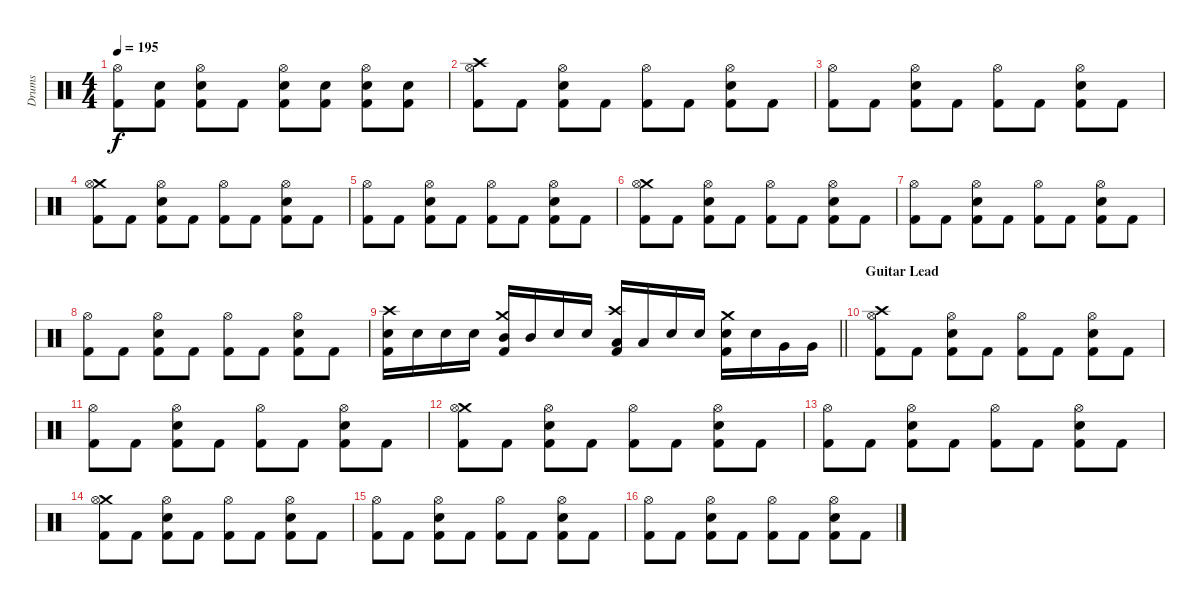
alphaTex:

\track ("Drums" "Drums") {instrument percussion}
\staff {score}
\articulation defaults
\ts (4 4)
\tempo 195
\clef neutral
\ks c
("Hi-Hat (open)" "Kick (hit) 2").8{dy f} ("Snare (hit) 2" "Kick (hit) 2").8 ("Hi-Hat (open)" "Snare (hit) 2" "Kick (hit) 2").8 "Kick (hit) 2".8 ("Hi-Hat (open)" "Snare (hit) 2" "Kick (hit) 2").8 ("Snare (hit) 2" "Kick (hit) 2").8 ("Hi-Hat (open)" "Snare (hit) 2" "Kick (hit) 2").8 ("Snare (hit) 2" "Kick (hit) 2").8 |
("Crash high (hit)" "Hi-Hat (open)" "Kick (hit) 2").8 "Kick (hit) 2".8 ("Hi-Hat (open)" "Snare (hit) 2" "Kick (hit) 2").8 "Kick (hit) 2".8 ("Hi-Hat (open)" "Kick (hit) 2").8 "Kick (hit) 2".8 ("Hi-Hat (open)" "Snare (hit) 2" "Kick (hit) 2").8 "Kick (hit) 2".8 |
("Hi-Hat (open)" "Kick (hit) 2").8 "Kick (hit) 2".8 ("Hi-Hat (open)" "Snare (hit) 2" "Kick (hit) 2").8 "Kick (hit) 2".8 ("Hi-Hat (open)" "Kick (hit) 2").8 "Kick (hit) 2".8 ("Hi-Hat (open)" "Snare (hit) 2" "Kick (hit) 2").8 "Kick (hit) 2".8 |
("Crash medium (hit)" "Hi-Hat (open)" "Kick (hit) 2").8 "Kick (hit) 2".8 ("Hi-Hat (open)" "Snare (hit) 2" "Kick (hit) 2").8 "Kick (hit) 2".8 ("Hi-Hat (open)" "Kick (hit) 2").8 "Kick (hit) 2".8 ("Hi-Hat (open)" "Snare (hit) 2" "Kick (hit) 2").8 "Kick (hit) 2".8 |
("Hi-Hat (open)" "Kick (hit) 2").8 "Kick (hit) 2".8 ("Hi-Hat (open)" "Snare (hit) 2" "Kick (hit) 2").8 "Kick (hit) 2".8 ("Hi-Hat (open)" "Kick (hit) 2").8 "Kick (hit) 2".8 ("Hi-Hat (open)" "Snare (hit) 2" "Kick (hit) 2").8 "Kick (hit) 2".8 |
("Crash medium (hit)" "Hi-Hat (open)" "Kick (hit) 2").8 "Kick (hit) 2".8 ("Hi-Hat (open)" "Snare (hit) 2" "Kick (hit) 2").8 "Kick (hit) 2".8 ("Hi-Hat (open)" "Kick (hit) 2").8 "Kick (hit) 2".8 ("Hi-Hat (open)" "Snare (hit) 2" "Kick (hit) 2").8 "Kick (hit) 2".8 |
("Hi-Hat (open)" "Kick (hit) 2").8 "Kick (hit) 2".8 ("Hi-Hat (open)" "Snare (hit) 2" "Kick (hit) 2").8 "Kick (hit) 2".8 ("Hi-Hat (open)" "Kick (hit) 2").8 "Kick (hit) 2".8 ("Hi-Hat (open)" "Snare (hit) 2" "Kick (hit) 2").8 "Kick (hit) 2".8 |
("Hi-Hat (open)" "Kick (hit) 2").8 "Kick (hit) 2".8 ("Hi-Hat (open)" "Snare (hit) 2" "Kick (hit) 2").8 "Kick (hit) 2".8 ("Hi-Hat (open)" "Kick (hit) 2").8 "Kick (hit) 2".8 ("Hi-Hat (open)" "Snare (hit) 2" "Kick (hit) 2").8 "Kick (hit) 2".8 |
\barLineRight lightlight
("Crash high (hit)" "Snare (hit) 2" "Kick (hit) 2").16 "Snare (hit) 2".16 "Snare (hit) 2".16 "Snare (hit) 2".16 ("Crash medium (hit)" "Mid Tom (hit)" "Kick (hit) 2").16 "Mid Tom (hit)".16 "Snare (hit) 2".16 "Snare (hit) 2".16 ("Crash high (hit)" "Low Tom (hit)" "Kick (hit) 2").16 "Low Tom (hit)".16 "Snare (hit) 2".16 "Snare (hit) 2".16 ("Crash medium (hit)" "Snare (hit) 2" "Kick (hit) 2").16 "Snare (hit) 2".16 "Very Low Tom (hit)".16 "Very Low Tom (hit)".16 |
\section ("" "Guitar Lead")
("Crash high (hit)" "Hi-Hat (open)" "Kick (hit) 2").8 "Kick (hit) 2".8 ("Hi-Hat (open)" "Snare (hit) 2" "Kick (hit) 2").8 "Kick (hit) 2".8 ("Hi-Hat (open)" "Kick (hit) 2").8 "Kick (hit) 2".8 ("Hi-Hat (open)" "Snare (hit) 2" "Kick (hit) 2").8 "Kick (hit) 2".8 |
("Hi-Hat (open)" "Kick (hit) 2").8 "Kick (hit) 2".8 ("Hi-Hat (open)" "Snare (hit) 2" "Kick (hit) 2").8 "Kick (hit) 2".8 ("Hi-Hat (open)" "Kick (hit) 2").8 "Kick (hit) 2".8 ("Hi-Hat (open)" "Snare (hit) 2" "Kick (hit) 2").8 "Kick (hit) 2".8 |
("Crash medium (hit)" "Hi-Hat (open)" "Kick (hit) 2").8 "Kick (hit) 2".8 ("Hi-Hat (open)" "Snare (hit) 2" "Kick (hit) 2").8 "Kick (hit) 2".8 ("Hi-Hat (open)" "Kick (hit) 2").8 "Kick (hit) 2".8 ("Hi-Hat (open)" "Snare (hit) 2" "Kick (hit) 2").8 "Kick (hit) 2".8 |
("Hi-Hat (open)" "Kick (hit) 2").8 "Kick (hit) 2".8 ("Hi-Hat (open)" "Snare (hit) 2" "Kick (hit) 2").8 "Kick (hit) 2".8 ("Hi-Hat (open)" "Kick (hit) 2").8 "Kick (hit) 2".8 ("Hi-Hat (open)" "Snare (hit) 2" "Kick (hit) 2").8 "Kick (hit) 2".8 |
("Crash medium (hit)" "Hi-Hat (open)" "Kick (hit) 2").8 "Kick (hit) 2".8 ("Hi-Hat (open)" "Snare (hit) 2" "Kick (hit) 2").8 "Kick (hit) 2".8 ("Hi-Hat (open)" "Kick (hit) 2").8 "Kick (hit) 2".8 ("Hi-Hat (open)" "Snare (hit) 2" "Kick (hit) 2").8 "Kick (hit) 2".8 |
("Hi-Hat (open)" "Kick (hit) 2").8 "Kick (hit) 2".8 ("Hi-Hat (open)" "Snare (hit) 2" "Kick (hit) 2").8 "Kick (hit) 2".8 ("Hi-Hat (open)" "Kick (hit) 2").8 "Kick (hit) 2".8 ("Hi-Hat (open)" "Snare (hit) 2" "Kick (hit) 2").8 "Kick (hit) 2".8 |
("Hi-Hat (open)" "Kick (hit) 2").8 "Kick (hit) 2".8 ("Hi-Hat (open)" "Snare (hit) 2" "Kick (hit) 2").8 "Kick (hit) 2".8 ("Hi-Hat (open)" "Kick (hit) 2").8 "Kick (hit) 2".8 ("Hi-Hat (open)" "Snare (hit) 2" "Kick (hit) 2").8 "Kick (hit) 2".8
